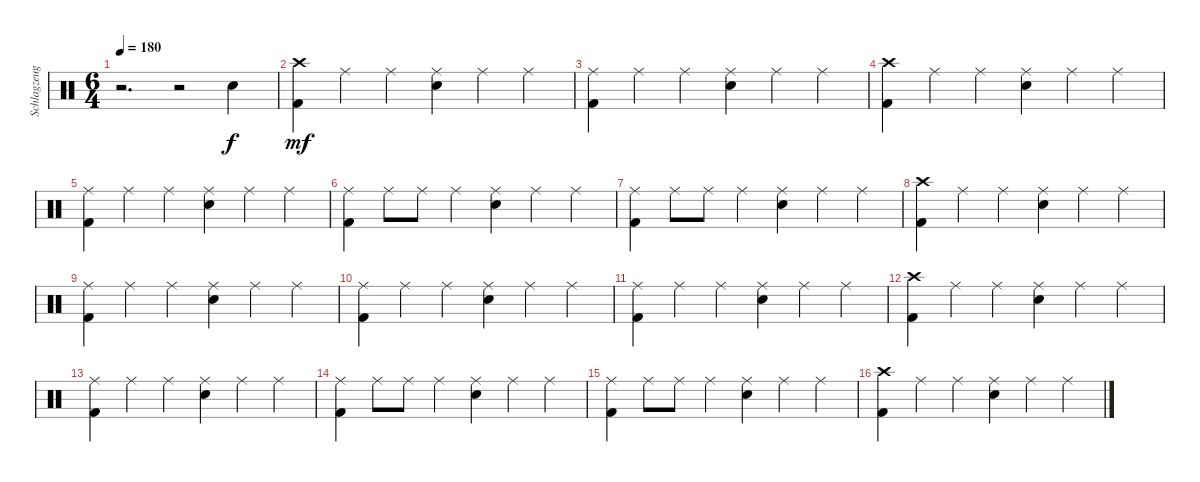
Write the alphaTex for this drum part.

\track ("Schlagzeug" "Schlagzeug") {instrument percussion}
\staff {score}
\articulation defaults
\ts (6 4)
\tempo 180
\clef neutral
\ks c
r.2{d dy mf} r.2 "Electric Snare (hit)".4{dy f} |
("Crash high (hit)" "Kick (hit) 2").4{dy mf} "Ride (middle)".4 "Ride (middle)".4 ("Ride (middle)" "Electric Snare (hit)").4 "Ride (middle)".4 "Ride (middle)".4 |
("Ride (middle)" "Kick (hit) 2").4 "Ride (middle)".4 "Ride (middle)".4 ("Ride (middle)" "Electric Snare (hit)").4 "Ride (middle)".4 "Ride (middle)".4 |
("Crash high (hit)" "Kick (hit) 2").4 "Ride (middle)".4 "Ride (middle)".4 ("Ride (middle)" "Electric Snare (hit)").4 "Ride (middle)".4 "Ride (middle)".4 |
("Ride (middle)" "Kick (hit) 2").4 "Ride (middle)".4 "Ride (middle)".4 ("Ride (middle)" "Electric Snare (hit)").4 "Ride (middle)".4 "Ride (middle)".4 |
("Ride (middle)" "Kick (hit) 2").4 "Ride (middle)".8 "Ride (middle)".8 "Ride (middle)".4 ("Ride (middle)" "Electric Snare (hit)").4 "Ride (middle)".4 "Ride (middle)".4 |
("Ride (middle)" "Kick (hit) 2").4 "Ride (middle)".8 "Ride (middle)".8 "Ride (middle)".4 ("Ride (middle)" "Electric Snare (hit)").4 "Ride (middle)".4 "Ride (middle)".4 |
("Crash high (hit)" "Kick (hit) 2").4 "Ride (middle)".4 "Ride (middle)".4 ("Ride (middle)" "Electric Snare (hit)").4 "Ride (middle)".4 "Ride (middle)".4 |
("Ride (middle)" "Kick (hit) 2").4 "Ride (middle)".4 "Ride (middle)".4 ("Ride (middle)" "Electric Snare (hit)").4 "Ride (middle)".4 "Ride (middle)".4 |
("Ride (middle)" "Kick (hit) 2").4 "Ride (middle)".4 "Ride (middle)".4 ("Ride (middle)" "Electric Snare (hit)").4 "Ride (middle)".4 "Ride (middle)".4 |
("Ride (middle)" "Kick (hit) 2").4 "Ride (middle)".4 "Ride (middle)".4 ("Ride (middle)" "Electric Snare (hit)").4 "Ride (middle)".4 "Ride (middle)".4 |
("Crash high (hit)" "Kick (hit) 2").4 "Ride (middle)".4 "Ride (middle)".4 ("Ride (middle)" "Electric Snare (hit)").4 "Ride (middle)".4 "Ride (middle)".4 |
("Ride (middle)" "Kick (hit) 2").4 "Ride (middle)".4 "Ride (middle)".4 ("Ride (middle)" "Electric Snare (hit)").4 "Ride (middle)".4 "Ride (middle)".4 |
("Ride (middle)" "Kick (hit) 2").4 "Ride (middle)".8 "Ride (middle)".8 "Ride (middle)".4 ("Ride (middle)" "Electric Snare (hit)").4 "Ride (middle)".4 "Ride (middle)".4 |
("Ride (middle)" "Kick (hit) 2").4 "Ride (middle)".8 "Ride (middle)".8 "Ride (middle)".4 ("Ride (middle)" "Electric Snare (hit)").4 "Ride (middle)".4 "Ride (middle)".4 |
("Crash high (hit)" "Kick (hit) 2").4 "Ride (middle)".4 "Ride (middle)".4 ("Ride (middle)" "Electric Snare (hit)").4 "Ride (middle)".4 "Ride (middle)".4
